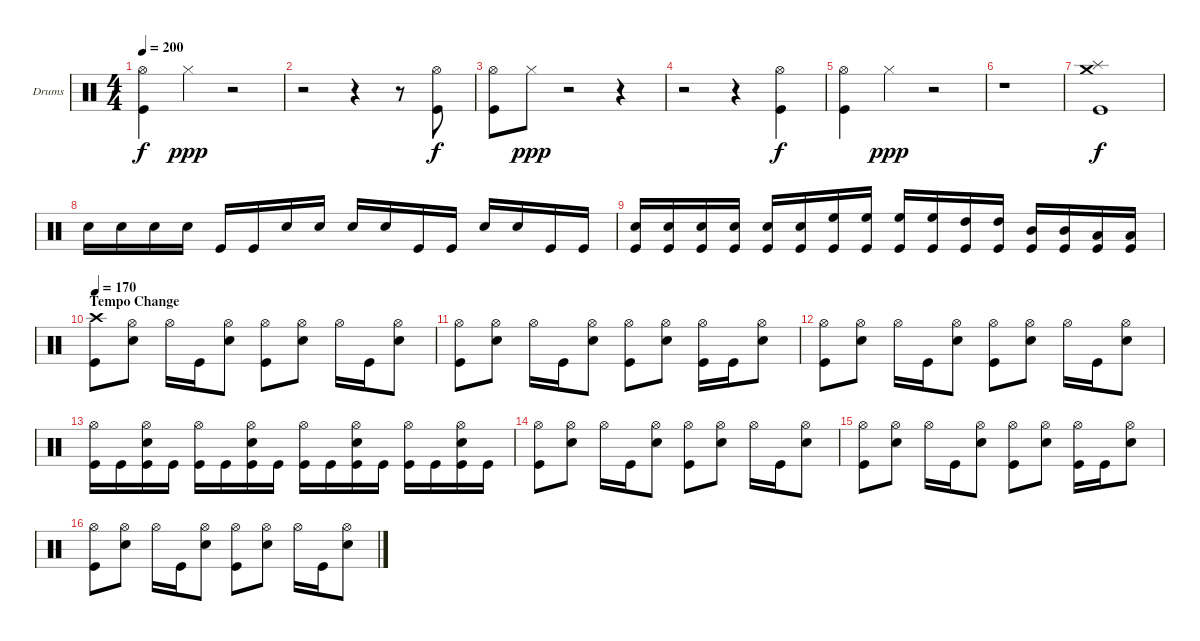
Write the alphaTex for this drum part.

\bracketExtendMode groupsimilarinstruments
\firstSystemTrackNameOrientation horizontal
\otherSystemsTrackNameOrientation horizontal
\track ("Drumkit" "Drums") {instrument percussion}
\staff {score}
\articulation defaults
\ts (4 4)
\section ("" "")
\tempo 200
\clef neutral
\ks aminor
("Kick (hit)" "Hi-Hat (open)").4{dy f} "Hi-Hat (closed)".4{dy ppp} r.2 |
r.2 r.4 r.8 ("Kick (hit)" "Hi-Hat (open)").8{dy f} |
("Kick (hit)" "Hi-Hat (open)").8 "Hi-Hat (closed)".8{dy ppp} r.2 r.4 |
r.2 r.4 ("Kick (hit)" "Hi-Hat (open)").4{dy f} |
("Kick (hit)" "Hi-Hat (open)").4 "Hi-Hat (closed)".4{dy ppp} r.2 |
r.1 |
("Kick (hit)" "Splash (hit)" "Crash medium (hit)").1{dy f} |
"Snare (hit) 2".16 "Snare (hit) 2".16 "Snare (hit) 2".16 "Snare (hit) 2".16 "Kick (hit)".16 "Kick (hit)".16 "Snare (hit) 2".16 "Snare (hit) 2".16 "Snare (hit) 2".16 "Snare (hit) 2".16 "Kick (hit)".16 "Kick (hit)".16 "Snare (hit) 2".16 "Snare (hit) 2".16 "Kick (hit)".16 "Kick (hit)".16 |
("Kick (hit)" "Snare (hit) 2").16 ("Kick (hit)" "Snare (hit) 2").16 ("Kick (hit)" "Snare (hit) 2").16 ("Kick (hit)" "Snare (hit) 2").16 ("Kick (hit)" "Snare (hit) 2").16 ("Kick (hit)" "Snare (hit) 2").16 ("Kick (hit)" "High Floor Tom (hit)").16 ("Kick (hit)" "High Floor Tom (hit)").16 ("Kick (hit)" "High Floor Tom (hit)").16 ("Kick (hit)" "High Floor Tom (hit)").16 ("Kick (hit)" "High Tom (hit)").16 ("Kick (hit)" "High Tom (hit)").16 ("Kick (hit)" "Mid Tom (hit)").16 ("Kick (hit)" "Mid Tom (hit)").16 ("Kick (hit)" "Low Tom (hit)").16 ("Kick (hit)" "Low Tom (hit)").16 |
\section ("" "Tempo Change")
\tempo 170
("Kick (hit)" "Crash high (hit)").8 ("Snare (hit) 2" "Hi-Hat (open)").8 "Hi-Hat (open)".16 "Kick (hit)".16 ("Snare (hit) 2" "Hi-Hat (open)").8 ("Kick (hit)" "Hi-Hat (open)").8 ("Snare (hit) 2" "Hi-Hat (open)").8 "Hi-Hat (open)".16 "Kick (hit)".16 ("Snare (hit) 2" "Hi-Hat (open)").8 |
("Kick (hit)" "Hi-Hat (open)").8 ("Snare (hit) 2" "Hi-Hat (open)").8 "Hi-Hat (open)".16 "Kick (hit)".16 ("Snare (hit) 2" "Hi-Hat (open)").8 ("Kick (hit)" "Hi-Hat (open)").8 ("Snare (hit) 2" "Hi-Hat (open)").8 ("Kick (hit)" "Hi-Hat (open)").16 "Kick (hit)".16 ("Snare (hit) 2" "Hi-Hat (open)").8 |
("Kick (hit)" "Hi-Hat (open)").8 ("Snare (hit) 2" "Hi-Hat (open)").8 "Hi-Hat (open)".16 "Kick (hit)".16 ("Snare (hit) 2" "Hi-Hat (open)").8 ("Kick (hit)" "Hi-Hat (open)").8 ("Snare (hit) 2" "Hi-Hat (open)").8 "Hi-Hat (open)".16 "Kick (hit)".16 ("Snare (hit) 2" "Hi-Hat (open)").8 |
("Kick (hit)" "Hi-Hat (open)").16 "Kick (hit)".16 ("Kick (hit)" "Snare (hit) 2" "Hi-Hat (open)").16 "Kick (hit)".16 ("Kick (hit)" "Hi-Hat (open)").16 "Kick (hit)".16 ("Kick (hit)" "Snare (hit) 2" "Hi-Hat (open)").16 "Kick (hit)".16 ("Kick (hit)" "Hi-Hat (open)").16 "Kick (hit)".16 ("Kick (hit)" "Snare (hit) 2" "Hi-Hat (open)").16 "Kick (hit)".16 ("Kick (hit)" "Hi-Hat (open)").16 "Kick (hit)".16 ("Kick (hit)" "Snare (hit) 2" "Hi-Hat (open)").16 "Kick (hit)".16 |
("Kick (hit)" "Hi-Hat (open)").8 ("Snare (hit) 2" "Hi-Hat (open)").8 "Hi-Hat (open)".16 "Kick (hit)".16 ("Snare (hit) 2" "Hi-Hat (open)").8 ("Kick (hit)" "Hi-Hat (open)").8 ("Snare (hit) 2" "Hi-Hat (open)").8 "Hi-Hat (open)".16 "Kick (hit)".16 ("Snare (hit) 2" "Hi-Hat (open)").8 |
("Kick (hit)" "Hi-Hat (open)").8 ("Snare (hit) 2" "Hi-Hat (open)").8 "Hi-Hat (open)".16 "Kick (hit)".16 ("Snare (hit) 2" "Hi-Hat (open)").8 ("Kick (hit)" "Hi-Hat (open)").8 ("Snare (hit) 2" "Hi-Hat (open)").8 ("Kick (hit)" "Hi-Hat (open)").16 "Kick (hit)".16 ("Snare (hit) 2" "Hi-Hat (open)").8 |
("Kick (hit)" "Hi-Hat (open)").8 ("Snare (hit) 2" "Hi-Hat (open)").8 "Hi-Hat (open)".16 "Kick (hit)".16 ("Snare (hit) 2" "Hi-Hat (open)").8 ("Kick (hit)" "Hi-Hat (open)").8 ("Snare (hit) 2" "Hi-Hat (open)").8 "Hi-Hat (open)".16 "Kick (hit)".16 ("Snare (hit) 2" "Hi-Hat (open)").8
